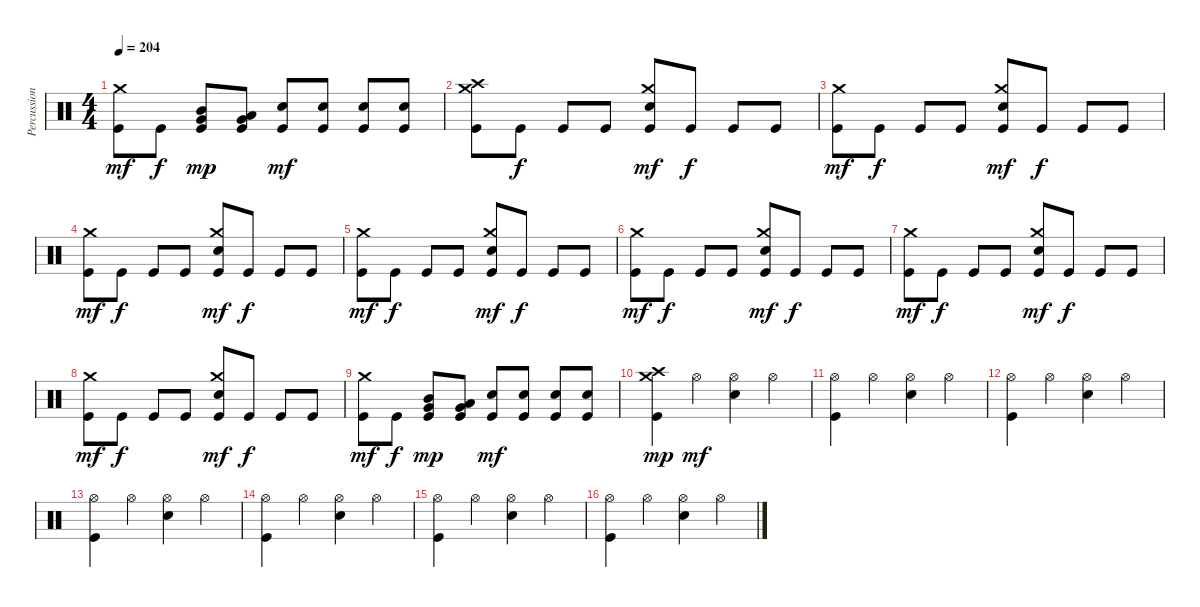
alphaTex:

\track ("Percussions" "Percussion") {instrument percussion}
\staff {score}
\articulation defaults
\ts (4 4)
\tempo 204
\clef neutral
\ks c
("Kick (hit)" "Crash medium (hit)").8{dy mf} "Kick (hit)".8{dy f} ("Kick (hit)" "Very Low Tom (hit)" "Mid Tom (hit)").8{dy mp} ("Kick (hit)" "Very Low Tom (hit)" "Low Tom (hit)").8 ("Kick (hit)" "Electric Snare (hit)").8{dy mf} ("Kick (hit)" "Electric Snare (hit)").8 ("Kick (hit)" "Electric Snare (hit)").8 ("Kick (hit)" "Electric Snare (hit)").8 |
("Kick (hit)" "Crash medium (hit)" "Crash high (hit)").8 "Kick (hit)".8{dy f} "Kick (hit)".8 "Kick (hit)".8 ("Kick (hit)" "Electric Snare (hit)" "Crash medium (hit)").8{dy mf} "Kick (hit)".8{dy f} "Kick (hit)".8 "Kick (hit)".8 |
("Kick (hit)" "Crash medium (hit)").8{dy mf} "Kick (hit)".8{dy f} "Kick (hit)".8 "Kick (hit)".8 ("Kick (hit)" "Electric Snare (hit)" "Crash medium (hit)").8{dy mf} "Kick (hit)".8{dy f} "Kick (hit)".8 "Kick (hit)".8 |
("Kick (hit)" "Crash medium (hit)").8{dy mf} "Kick (hit)".8{dy f} "Kick (hit)".8 "Kick (hit)".8 ("Kick (hit)" "Electric Snare (hit)" "Crash medium (hit)").8{dy mf} "Kick (hit)".8{dy f} "Kick (hit)".8 "Kick (hit)".8 |
("Kick (hit)" "Crash medium (hit)").8{dy mf} "Kick (hit)".8{dy f} "Kick (hit)".8 "Kick (hit)".8 ("Kick (hit)" "Electric Snare (hit)" "Crash medium (hit)").8{dy mf} "Kick (hit)".8{dy f} "Kick (hit)".8 "Kick (hit)".8 |
("Kick (hit)" "Crash medium (hit)").8{dy mf} "Kick (hit)".8{dy f} "Kick (hit)".8 "Kick (hit)".8 ("Kick (hit)" "Electric Snare (hit)" "Crash medium (hit)").8{dy mf} "Kick (hit)".8{dy f} "Kick (hit)".8 "Kick (hit)".8 |
("Kick (hit)" "Crash medium (hit)").8{dy mf} "Kick (hit)".8{dy f} "Kick (hit)".8 "Kick (hit)".8 ("Kick (hit)" "Electric Snare (hit)" "Crash medium (hit)").8{dy mf} "Kick (hit)".8{dy f} "Kick (hit)".8 "Kick (hit)".8 |
("Kick (hit)" "Crash medium (hit)").8{dy mf} "Kick (hit)".8{dy f} "Kick (hit)".8 "Kick (hit)".8 ("Kick (hit)" "Electric Snare (hit)" "Crash medium (hit)").8{dy mf} "Kick (hit)".8{dy f} "Kick (hit)".8 "Kick (hit)".8 |
("Kick (hit)" "Crash medium (hit)").8{dy mf} "Kick (hit)".8{dy f} ("Kick (hit)" "Very Low Tom (hit)" "Mid Tom (hit)").8{dy mp} ("Kick (hit)" "Very Low Tom (hit)" "Low Tom (hit)").8 ("Kick (hit)" "Electric Snare (hit)").8{dy mf} ("Kick (hit)" "Electric Snare (hit)").8 ("Kick (hit)" "Electric Snare (hit)").8 ("Kick (hit)" "Electric Snare (hit)").8 |
("Kick (hit)" "Crash high (hit)" "Crash medium (hit)").4{dy mp} "Hi-Hat (open)".4{dy mf} ("Electric Snare (hit)" "Hi-Hat (open)").4 "Hi-Hat (open)".4 |
("Kick (hit)" "Hi-Hat (open)").4 "Hi-Hat (open)".4 ("Electric Snare (hit)" "Hi-Hat (open)").4 "Hi-Hat (open)".4 |
("Kick (hit)" "Hi-Hat (open)").4 "Hi-Hat (open)".4 ("Electric Snare (hit)" "Hi-Hat (open)").4 "Hi-Hat (open)".4 |
("Kick (hit)" "Hi-Hat (open)").4 "Hi-Hat (open)".4 ("Electric Snare (hit)" "Hi-Hat (open)").4 "Hi-Hat (open)".4 |
("Kick (hit)" "Hi-Hat (open)").4 "Hi-Hat (open)".4 ("Electric Snare (hit)" "Hi-Hat (open)").4 "Hi-Hat (open)".4 |
("Kick (hit)" "Hi-Hat (open)").4 "Hi-Hat (open)".4 ("Electric Snare (hit)" "Hi-Hat (open)").4 "Hi-Hat (open)".4 |
("Kick (hit)" "Hi-Hat (open)").4 "Hi-Hat (open)".4 ("Electric Snare (hit)" "Hi-Hat (open)").4 "Hi-Hat (open)".4
